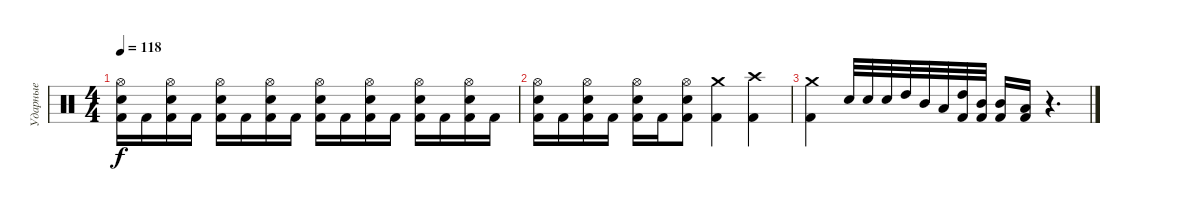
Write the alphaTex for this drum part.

\track ("Ударные" "Ударные") {instrument percussion}
\staff {score}
\articulation defaults
\ts (4 4)
\tempo 118
\clef neutral
\ks c
("Hi-Hat (open)" "Electric Snare (hit)" "Kick (hit) 2").16{dy f} "Kick (hit) 2".16 ("Hi-Hat (open)" "Electric Snare (hit)" "Kick (hit) 2").16 "Kick (hit) 2".16 ("Hi-Hat (open)" "Electric Snare (hit)" "Kick (hit) 2").16 "Kick (hit) 2".16 ("Hi-Hat (open)" "Electric Snare (hit)" "Kick (hit) 2").16 "Kick (hit) 2".16 ("Hi-Hat (open)" "Electric Snare (hit)" "Kick (hit) 2").16 "Kick (hit) 2".16 ("Hi-Hat (open)" "Electric Snare (hit)" "Kick (hit) 2").16 "Kick (hit) 2".16 ("Hi-Hat (open)" "Electric Snare (hit)" "Kick (hit) 2").16 "Kick (hit) 2".16 ("Hi-Hat (open)" "Electric Snare (hit)" "Kick (hit) 2").16 "Kick (hit) 2".16 |
("Hi-Hat (open)" "Electric Snare (hit)" "Kick (hit) 2").16 "Kick (hit) 2".16 ("Hi-Hat (open)" "Electric Snare (hit)" "Kick (hit) 2").16 "Kick (hit) 2".16 ("Hi-Hat (open)" "Electric Snare (hit)" "Kick (hit) 2").16 "Kick (hit) 2".16 ("Hi-Hat (open)" "Electric Snare (hit)" "Kick (hit) 2").8 ("Crash medium (hit)" "Kick (hit) 2").4 ("Crash high (hit)" "Kick (hit) 2").4 |
("Crash medium (hit)" "Kick (hit) 2").4 "Electric Snare (hit)".32 "Electric Snare (hit)".32 "Electric Snare (hit)".32 "High Tom (hit)".32 "Mid Tom (hit)".32 "Low Tom (hit)".32 ("High Tom (hit)" "Kick (hit) 2").32 ("Mid Tom (hit)" "Kick (hit) 2").32 ("Mid Tom (hit)" "Kick (hit) 2").16 ("Low Tom (hit)" "Kick (hit) 2").16 r.4{d}
